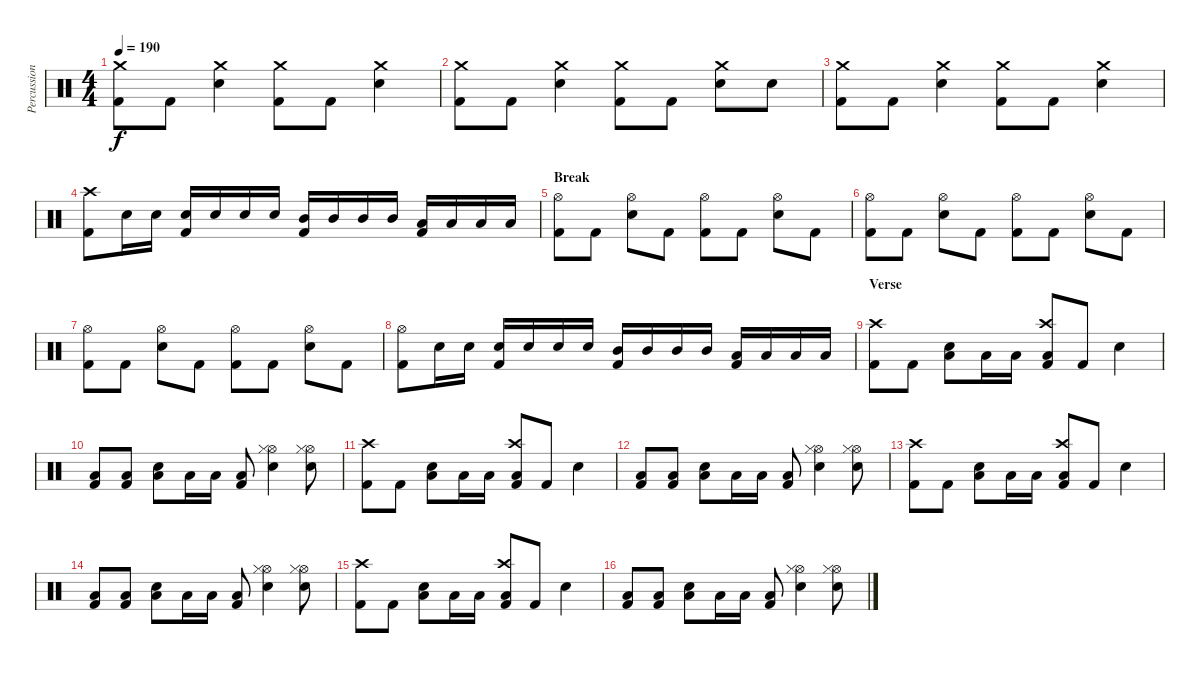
\track ("Percussion" "Percussion") {instrument percussion}
\staff {score}
\articulation defaults
\ts (4 4)
\tempo 190
\clef neutral
\ks c
("Crash medium (hit)" "Kick (hit) 2").8{dy f} "Kick (hit) 2".8 ("Crash medium (hit)" "Snare (hit) 2").4 ("Crash medium (hit)" "Kick (hit) 2").8 "Kick (hit) 2".8 ("Crash medium (hit)" "Snare (hit) 2").4 |
("Crash medium (hit)" "Kick (hit) 2").8 "Kick (hit) 2".8 ("Crash medium (hit)" "Snare (hit) 2").4 ("Crash medium (hit)" "Kick (hit) 2").8 "Kick (hit) 2".8 ("Crash medium (hit)" "Snare (hit) 2").8 "Snare (hit) 2".8 |
("Crash medium (hit)" "Kick (hit) 2").8 "Kick (hit) 2".8 ("Crash medium (hit)" "Snare (hit) 2").4 ("Crash medium (hit)" "Kick (hit) 2").8 "Kick (hit) 2".8 ("Crash medium (hit)" "Snare (hit) 2").4 |
("Crash high (hit)" "Kick (hit) 2").8 "Snare (hit) 2".16 "Snare (hit) 2".16 ("Snare (hit) 2" "Kick (hit) 2").16 "Snare (hit) 2".16 "Snare (hit) 2".16 "Snare (hit) 2".16 ("Mid Tom (hit)" "Kick (hit) 2").16 "Mid Tom (hit)".16 "Mid Tom (hit)".16 "Mid Tom (hit)".16 ("Low Tom (hit)" "Kick (hit) 2").16 "Low Tom (hit)".16 "Low Tom (hit)".16 "Low Tom (hit)".16 |
\section ("" "Break")
("Hi-Hat (open)" "Kick (hit) 2").8 "Kick (hit) 2".8 ("Hi-Hat (open)" "Snare (hit) 2").8 "Kick (hit) 2".8 ("Hi-Hat (open)" "Kick (hit) 2").8 "Kick (hit) 2".8 ("Hi-Hat (open)" "Snare (hit) 2").8 "Kick (hit) 2".8 |
("Hi-Hat (open)" "Kick (hit) 2").8 "Kick (hit) 2".8 ("Hi-Hat (open)" "Snare (hit) 2").8 "Kick (hit) 2".8 ("Hi-Hat (open)" "Kick (hit) 2").8 "Kick (hit) 2".8 ("Hi-Hat (open)" "Snare (hit) 2").8 "Kick (hit) 2".8 |
("Hi-Hat (open)" "Kick (hit) 2").8 "Kick (hit) 2".8 ("Hi-Hat (open)" "Snare (hit) 2").8 "Kick (hit) 2".8 ("Hi-Hat (open)" "Kick (hit) 2").8 "Kick (hit) 2".8 ("Hi-Hat (open)" "Snare (hit) 2").8 "Kick (hit) 2".8 |
("Hi-Hat (open)" "Kick (hit) 2").8 "Snare (hit) 2".16 "Snare (hit) 2".16 ("Snare (hit) 2" "Kick (hit) 2").16 "Snare (hit) 2".16 "Snare (hit) 2".16 "Snare (hit) 2".16 ("Mid Tom (hit)" "Kick (hit) 2").16 "Mid Tom (hit)".16 "Mid Tom (hit)".16 "Mid Tom (hit)".16 ("Low Tom (hit)" "Kick (hit) 2").16 "Low Tom (hit)".16 "Low Tom (hit)".16 "Low Tom (hit)".16 |
\section ("" "Verse")
("Crash high (hit)" "Kick (hit) 2").8 "Kick (hit) 2".8 ("Low Tom (hit)" "Snare (hit) 2").8 "Low Tom (hit)".16 "Low Tom (hit)".16 ("Crash high (hit)" "Low Tom (hit)" "Kick (hit) 2").8 "Kick (hit) 2".8 "Snare (hit) 2".4 |
("Low Tom (hit)" "Kick (hit) 2").8 ("Low Tom (hit)" "Kick (hit) 2").8 ("Low Tom (hit)" "Snare (hit) 2").8 "Low Tom (hit)".16 "Low Tom (hit)".16 ("Low Tom (hit)" "Kick (hit) 2").8 ("Hi-Hat (open)" "Hi-Hat (closed)" "Snare (hit) 2").4 ("Hi-Hat (open)" "Hi-Hat (closed)" "Snare (hit) 2").8 |
("Crash high (hit)" "Kick (hit) 2").8 "Kick (hit) 2".8 ("Low Tom (hit)" "Snare (hit) 2").8 "Low Tom (hit)".16 "Low Tom (hit)".16 ("Crash high (hit)" "Low Tom (hit)" "Kick (hit) 2").8 "Kick (hit) 2".8 "Snare (hit) 2".4 |
("Low Tom (hit)" "Kick (hit) 2").8 ("Low Tom (hit)" "Kick (hit) 2").8 ("Low Tom (hit)" "Snare (hit) 2").8 "Low Tom (hit)".16 "Low Tom (hit)".16 ("Low Tom (hit)" "Kick (hit) 2").8 ("Hi-Hat (open)" "Hi-Hat (closed)" "Snare (hit) 2").4 ("Hi-Hat (open)" "Hi-Hat (closed)" "Snare (hit) 2").8 |
("Crash high (hit)" "Kick (hit) 2").8 "Kick (hit) 2".8 ("Low Tom (hit)" "Snare (hit) 2").8 "Low Tom (hit)".16 "Low Tom (hit)".16 ("Crash high (hit)" "Low Tom (hit)" "Kick (hit) 2").8 "Kick (hit) 2".8 "Snare (hit) 2".4 |
("Low Tom (hit)" "Kick (hit) 2").8 ("Low Tom (hit)" "Kick (hit) 2").8 ("Low Tom (hit)" "Snare (hit) 2").8 "Low Tom (hit)".16 "Low Tom (hit)".16 ("Low Tom (hit)" "Kick (hit) 2").8 ("Hi-Hat (open)" "Hi-Hat (closed)" "Snare (hit) 2").4 ("Hi-Hat (open)" "Hi-Hat (closed)" "Snare (hit) 2").8 |
("Crash high (hit)" "Kick (hit) 2").8 "Kick (hit) 2".8 ("Low Tom (hit)" "Snare (hit) 2").8 "Low Tom (hit)".16 "Low Tom (hit)".16 ("Crash high (hit)" "Low Tom (hit)" "Kick (hit) 2").8 "Kick (hit) 2".8 "Snare (hit) 2".4 |
("Low Tom (hit)" "Kick (hit) 2").8 ("Low Tom (hit)" "Kick (hit) 2").8 ("Low Tom (hit)" "Snare (hit) 2").8 "Low Tom (hit)".16 "Low Tom (hit)".16 ("Low Tom (hit)" "Kick (hit) 2").8 ("Hi-Hat (open)" "Hi-Hat (closed)" "Snare (hit) 2").4 ("Hi-Hat (open)" "Hi-Hat (closed)" "Snare (hit) 2").8
